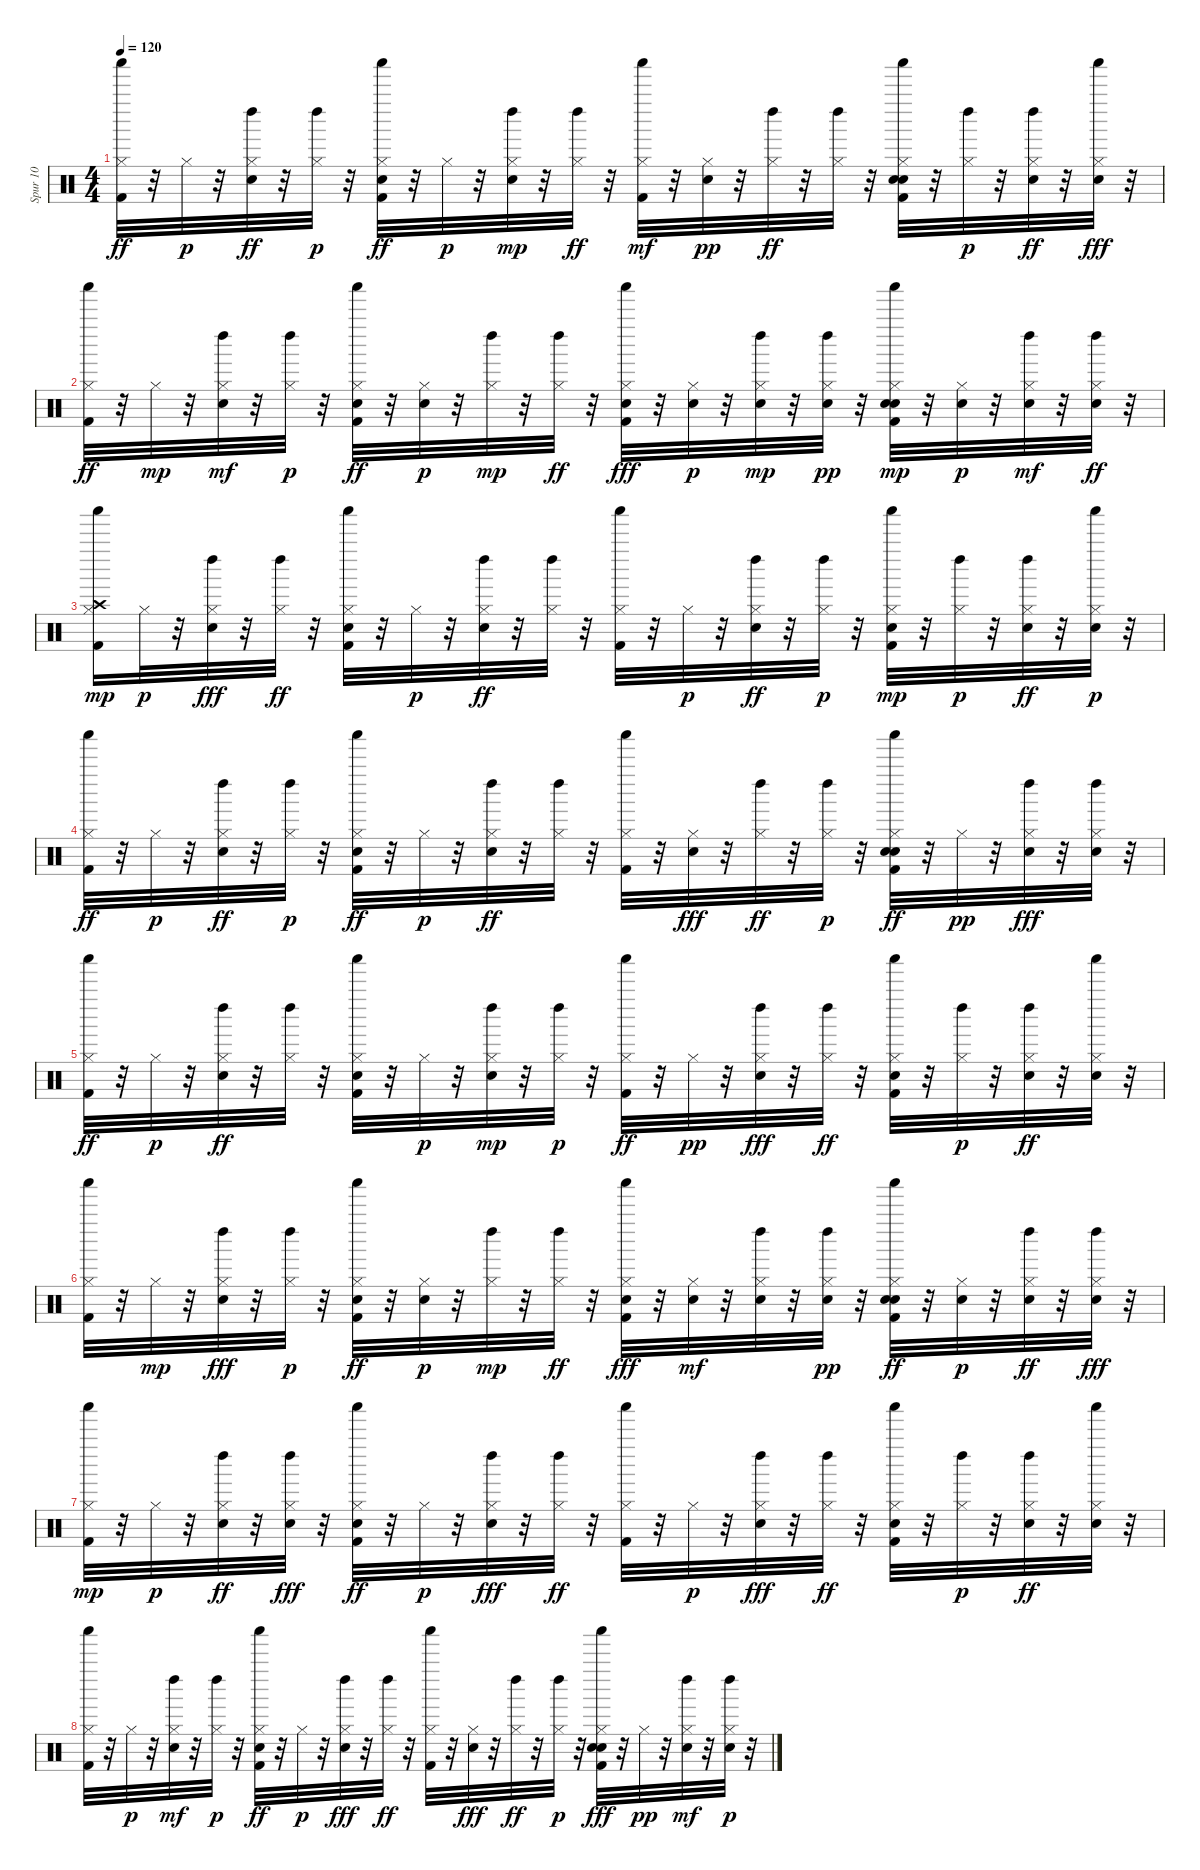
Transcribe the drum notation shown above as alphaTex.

\track ("Spur 10" "Spur 10") {instrument percussion}
\staff {score}
\articulation defaults
\ts (4 4)
\tempo 120
\clef neutral
\ks c
("Shaker (hit)" "Hi-Hat (closed)" "Kick (hit) 2").32{dy ff} r.32 "Hi-Hat (closed)".32{dy p} r.32 ("Electric Snare (hit)" "Left Maraca (hit)" "Hi-Hat (closed)").32{dy ff} r.32 ("Left Maraca (hit)" "Hi-Hat (closed)").32{dy p} r.32 ("Kick (hit) 2" "Snare (hit) 2" "Shaker (hit)" "Hi-Hat (closed)").32{dy ff} r.32 "Hi-Hat (closed)".32{dy p} r.32 ("Hi-Hat (closed)" "Electric Snare (hit)" "Left Maraca (hit)").32{dy mp} r.32 ("Hi-Hat (closed)" "Left Maraca (hit)").32{dy ff} r.32 ("Kick (hit) 2" "Hi-Hat (closed)" "Shaker (hit)").32{dy mf} r.32 ("Electric Snare (hit)" "Hi-Hat (closed)").32{dy pp} r.32 ("Hi-Hat (closed)" "Left Maraca (hit)").32{dy ff} r.32 ("Hi-Hat (closed)" "Left Maraca (hit)").32 r.32 ("Electric Snare (hit)" "Kick (hit) 2" "Snare (hit) 2" "Shaker (hit)" "Hi-Hat (closed)").32 r.32 ("Hi-Hat (closed)" "Left Maraca (hit)").32{dy p} r.32 ("Left Maraca (hit)" "Electric Snare (hit)" "Hi-Hat (closed)").32{dy ff} r.32 ("Hi-Hat (closed)" "Shaker (hit)" "Electric Snare (hit)").32{dy fff} r.32 |
("Hi-Hat (closed)" "Shaker (hit)" "Kick (hit) 2").32{dy ff} r.32 "Hi-Hat (closed)".32{dy mp} r.32 ("Hi-Hat (closed)" "Electric Snare (hit)" "Left Maraca (hit)").32{dy mf} r.32 ("Left Maraca (hit)" "Hi-Hat (closed)").32{dy p} r.32 ("Shaker (hit)" "Snare (hit) 2" "Hi-Hat (closed)" "Kick (hit) 2").32{dy ff} r.32 ("Electric Snare (hit)" "Hi-Hat (closed)").32{dy p} r.32 ("Hi-Hat (closed)" "Left Maraca (hit)").32{dy mp} r.32 ("Hi-Hat (closed)" "Left Maraca (hit)").32{dy ff} r.32 ("Shaker (hit)" "Kick (hit) 2" "Hi-Hat (closed)" "Electric Snare (hit)").32{dy fff} r.32 ("Electric Snare (hit)" "Hi-Hat (closed)").32{dy p} r.32 ("Hi-Hat (closed)" "Electric Snare (hit)" "Left Maraca (hit)").32{dy mp} r.32 ("Electric Snare (hit)" "Left Maraca (hit)" "Hi-Hat (closed)").32{dy pp} r.32 ("Kick (hit) 2" "Shaker (hit)" "Snare (hit) 2" "Electric Snare (hit)" "Hi-Hat (closed)").32{dy mp} r.32 ("Electric Snare (hit)" "Hi-Hat (closed)").32{dy p} r.32 ("Electric Snare (hit)" "Hi-Hat (closed)" "Left Maraca (hit)").32{dy mf} r.32 ("Hi-Hat (closed)" "Electric Snare (hit)" "Left Maraca (hit)").32{dy ff} r.32 |
("Shaker (hit)" "Crash high (hit)" "Kick (hit) 2" "Hi-Hat (closed)").16{dy mp} "Hi-Hat (closed)".32{dy p} r.32 ("Hi-Hat (closed)" "Electric Snare (hit)" "Left Maraca (hit)").32{dy fff} r.32 ("Hi-Hat (closed)" "Left Maraca (hit)").32{dy ff} r.32 ("Shaker (hit)" "Hi-Hat (closed)" "Kick (hit) 2" "Snare (hit) 2").32 r.32 "Hi-Hat (closed)".32{dy p} r.32 ("Left Maraca (hit)" "Electric Snare (hit)" "Hi-Hat (closed)").32{dy ff} r.32 ("Hi-Hat (closed)" "Left Maraca (hit)").32 r.32 ("Hi-Hat (closed)" "Shaker (hit)" "Kick (hit) 2").32 r.32 "Hi-Hat (closed)".32{dy p} r.32 ("Left Maraca (hit)" "Electric Snare (hit)" "Hi-Hat (closed)").32{dy ff} r.32 ("Left Maraca (hit)" "Hi-Hat (closed)").32{dy p} r.32 ("Shaker (hit)" "Kick (hit) 2" "Snare (hit) 2" "Hi-Hat (closed)").32{dy mp} r.32 ("Left Maraca (hit)" "Hi-Hat (closed)").32{dy p} r.32 ("Left Maraca (hit)" "Electric Snare (hit)" "Hi-Hat (closed)").32{dy ff} r.32 ("Electric Snare (hit)" "Shaker (hit)" "Hi-Hat (closed)").32{dy p} r.32 |
("Shaker (hit)" "Hi-Hat (closed)" "Kick (hit) 2").32{dy ff} r.32 "Hi-Hat (closed)".32{dy p} r.32 ("Left Maraca (hit)" "Electric Snare (hit)" "Hi-Hat (closed)").32{dy ff} r.32 ("Hi-Hat (closed)" "Left Maraca (hit)").32{dy p} r.32 ("Shaker (hit)" "Hi-Hat (closed)" "Snare (hit) 2" "Kick (hit) 2").32{dy ff} r.32 "Hi-Hat (closed)".32{dy p} r.32 ("Left Maraca (hit)" "Electric Snare (hit)" "Hi-Hat (closed)").32{dy ff} r.32 ("Hi-Hat (closed)" "Left Maraca (hit)").32 r.32 ("Hi-Hat (closed)" "Shaker (hit)" "Kick (hit) 2").32 r.32 ("Hi-Hat (closed)" "Electric Snare (hit)").32{dy fff} r.32 ("Hi-Hat (closed)" "Left Maraca (hit)").32{dy ff} r.32 ("Left Maraca (hit)" "Hi-Hat (closed)").32{dy p} r.32 ("Shaker (hit)" "Kick (hit) 2" "Hi-Hat (closed)" "Electric Snare (hit)" "Snare (hit) 2").32{dy ff} r.32 "Hi-Hat (closed)".32{dy pp} r.32 ("Left Maraca (hit)" "Hi-Hat (closed)" "Electric Snare (hit)").32{dy fff} r.32 ("Left Maraca (hit)" "Hi-Hat (closed)" "Electric Snare (hit)").32 r.32 |
("Shaker (hit)" "Hi-Hat (closed)" "Kick (hit) 2").32{dy ff} r.32 "Hi-Hat (closed)".32{dy p} r.32 ("Electric Snare (hit)" "Hi-Hat (closed)" "Left Maraca (hit)").32{dy ff} r.32 ("Hi-Hat (closed)" "Left Maraca (hit)").32 r.32 ("Hi-Hat (closed)" "Snare (hit) 2" "Shaker (hit)" "Kick (hit) 2").32 r.32 "Hi-Hat (closed)".32{dy p} r.32 ("Electric Snare (hit)" "Hi-Hat (closed)" "Left Maraca (hit)").32{dy mp} r.32 ("Left Maraca (hit)" "Hi-Hat (closed)").32{dy p} r.32 ("Hi-Hat (closed)" "Shaker (hit)" "Kick (hit) 2").32{dy ff} r.32 "Hi-Hat (closed)".32{dy pp} r.32 ("Left Maraca (hit)" "Hi-Hat (closed)" "Electric Snare (hit)").32{dy fff} r.32 ("Hi-Hat (closed)" "Left Maraca (hit)").32{dy ff} r.32 ("Kick (hit) 2" "Snare (hit) 2" "Hi-Hat (closed)" "Shaker (hit)").32 r.32 ("Left Maraca (hit)" "Hi-Hat (closed)").32{dy p} r.32 ("Left Maraca (hit)" "Electric Snare (hit)" "Hi-Hat (closed)").32{dy ff} r.32 ("Electric Snare (hit)" "Hi-Hat (closed)" "Shaker (hit)").32 r.32 |
("Kick (hit) 2" "Shaker (hit)" "Hi-Hat (closed)").32 r.32 "Hi-Hat (closed)".32{dy mp} r.32 ("Hi-Hat (closed)" "Left Maraca (hit)" "Electric Snare (hit)").32{dy fff} r.32 ("Hi-Hat (closed)" "Left Maraca (hit)").32{dy p} r.32 ("Snare (hit) 2" "Hi-Hat (closed)" "Kick (hit) 2" "Shaker (hit)").32{dy ff} r.32 ("Electric Snare (hit)" "Hi-Hat (closed)").32{dy p} r.32 ("Hi-Hat (closed)" "Left Maraca (hit)").32{dy mp} r.32 ("Hi-Hat (closed)" "Left Maraca (hit)").32{dy ff} r.32 ("Kick (hit) 2" "Hi-Hat (closed)" "Shaker (hit)" "Electric Snare (hit)").32{dy fff} r.32 ("Hi-Hat (closed)" "Electric Snare (hit)").32{dy mf} r.32 ("Hi-Hat (closed)" "Electric Snare (hit)" "Left Maraca (hit)").32 r.32 ("Electric Snare (hit)" "Left Maraca (hit)" "Hi-Hat (closed)").32{dy pp} r.32 ("Hi-Hat (closed)" "Shaker (hit)" "Kick (hit) 2" "Electric Snare (hit)" "Snare (hit) 2").32{dy ff} r.32 ("Electric Snare (hit)" "Hi-Hat (closed)").32{dy p} r.32 ("Left Maraca (hit)" "Electric Snare (hit)" "Hi-Hat (closed)").32{dy ff} r.32 ("Left Maraca (hit)" "Hi-Hat (closed)" "Electric Snare (hit)").32{dy fff} r.32 |
("Kick (hit) 2" "Hi-Hat (closed)" "Shaker (hit)").32{dy mp} r.32 "Hi-Hat (closed)".32{dy p} r.32 ("Hi-Hat (closed)" "Left Maraca (hit)" "Electric Snare (hit)").32{dy ff} r.32 ("Left Maraca (hit)" "Hi-Hat (closed)" "Electric Snare (hit)").32{dy fff} r.32 ("Hi-Hat (closed)" "Shaker (hit)" "Snare (hit) 2" "Kick (hit) 2").32{dy ff} r.32 "Hi-Hat (closed)".32{dy p} r.32 ("Hi-Hat (closed)" "Left Maraca (hit)" "Electric Snare (hit)").32{dy fff} r.32 ("Hi-Hat (closed)" "Left Maraca (hit)").32{dy ff} r.32 ("Hi-Hat (closed)" "Kick (hit) 2" "Shaker (hit)").32 r.32 "Hi-Hat (closed)".32{dy p} r.32 ("Left Maraca (hit)" "Hi-Hat (closed)" "Electric Snare (hit)").32{dy fff} r.32 ("Hi-Hat (closed)" "Left Maraca (hit)").32{dy ff} r.32 ("Shaker (hit)" "Hi-Hat (closed)" "Kick (hit) 2" "Snare (hit) 2").32 r.32 ("Left Maraca (hit)" "Hi-Hat (closed)").32{dy p} r.32 ("Electric Snare (hit)" "Left Maraca (hit)" "Hi-Hat (closed)").32{dy ff} r.32 ("Hi-Hat (closed)" "Electric Snare (hit)" "Shaker (hit)").32 r.32 |
("Hi-Hat (closed)" "Shaker (hit)" "Kick (hit) 2").32 r.32 "Hi-Hat (closed)".32{dy p} r.32 ("Electric Snare (hit)" "Hi-Hat (closed)" "Left Maraca (hit)").32{dy mf} r.32 ("Left Maraca (hit)" "Hi-Hat (closed)").32{dy p} r.32 ("Hi-Hat (closed)" "Kick (hit) 2" "Shaker (hit)" "Snare (hit) 2").32{dy ff} r.32 "Hi-Hat (closed)".32{dy p} r.32 ("Hi-Hat (closed)" "Left Maraca (hit)" "Electric Snare (hit)").32{dy fff} r.32 ("Hi-Hat (closed)" "Left Maraca (hit)").32{dy ff} r.32 ("Shaker (hit)" "Kick (hit) 2" "Hi-Hat (closed)").32 r.32 ("Hi-Hat (closed)" "Electric Snare (hit)").32{dy fff} r.32 ("Left Maraca (hit)" "Hi-Hat (closed)").32{dy ff} r.32 ("Hi-Hat (closed)" "Left Maraca (hit)").32{dy p} r.32 ("Kick (hit) 2" "Hi-Hat (closed)" "Snare (hit) 2" "Shaker (hit)" "Electric Snare (hit)").32{dy fff} r.32 "Hi-Hat (closed)".32{dy pp} r.32 ("Electric Snare (hit)" "Hi-Hat (closed)" "Left Maraca (hit)").32{dy mf} r.32 ("Electric Snare (hit)" "Left Maraca (hit)" "Hi-Hat (closed)").32{dy p} r.32
